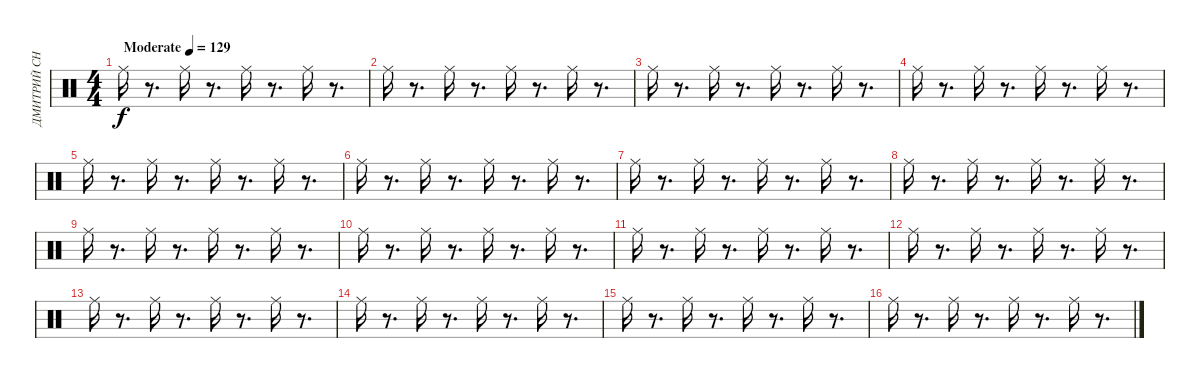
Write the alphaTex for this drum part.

\track ("ДМИТРИЙ СНЭЙК" "ДМИТРИЙ СН") {instrument percussion}
\staff {score}
\articulation defaults
\ts (4 4)
\tempo (129 "Moderate")
\clef neutral
\ks c "Ride (middle)".16{dy f}
r.8{d} "Ride (middle)".16 r.8{d} "Ride (middle)".16 r.8{d} "Ride (middle)".16 r.8{d} |
"Ride (middle)".16 r.8{d} "Ride (middle)".16 r.8{d} "Ride (middle)".16 r.8{d} "Ride (middle)".16 r.8{d} |
"Ride (middle)".16 r.8{d} "Ride (middle)".16 r.8{d} "Ride (middle)".16 r.8{d} "Ride (middle)".16 r.8{d} |
"Ride (middle)".16 r.8{d} "Ride (middle)".16 r.8{d} "Ride (middle)".16 r.8{d} "Ride (middle)".16 r.8{d} |
"Ride (middle)".16 r.8{d} "Ride (middle)".16 r.8{d} "Ride (middle)".16 r.8{d} "Ride (middle)".16 r.8{d} |
"Ride (middle)".16 r.8{d} "Ride (middle)".16 r.8{d} "Ride (middle)".16 r.8{d} "Ride (middle)".16 r.8{d} |
"Ride (middle)".16 r.8{d} "Ride (middle)".16 r.8{d} "Ride (middle)".16 r.8{d} "Ride (middle)".16 r.8{d} |
"Ride (middle)".16 r.8{d} "Ride (middle)".16 r.8{d} "Ride (middle)".16 r.8{d} "Ride (middle)".16 r.8{d} |
"Ride (middle)".16 r.8{d} "Ride (middle)".16 r.8{d} "Ride (middle)".16 r.8{d} "Ride (middle)".16 r.8{d} |
"Ride (middle)".16 r.8{d} "Ride (middle)".16 r.8{d} "Ride (middle)".16 r.8{d} "Ride (middle)".16 r.8{d} |
"Ride (middle)".16 r.8{d} "Ride (middle)".16 r.8{d} "Ride (middle)".16 r.8{d} "Ride (middle)".16 r.8{d} |
"Ride (middle)".16 r.8{d} "Ride (middle)".16 r.8{d} "Ride (middle)".16 r.8{d} "Ride (middle)".16 r.8{d} |
"Ride (middle)".16 r.8{d} "Ride (middle)".16 r.8{d} "Ride (middle)".16 r.8{d} "Ride (middle)".16 r.8{d} |
"Ride (middle)".16 r.8{d} "Ride (middle)".16 r.8{d} "Ride (middle)".16 r.8{d} "Ride (middle)".16 r.8{d} |
"Ride (middle)".16 r.8{d} "Ride (middle)".16 r.8{d} "Ride (middle)".16 r.8{d} "Ride (middle)".16 r.8{d} |
"Ride (middle)".16 r.8{d} "Ride (middle)".16 r.8{d} "Ride (middle)".16 r.8{d} "Ride (middle)".16 r.8{d}
